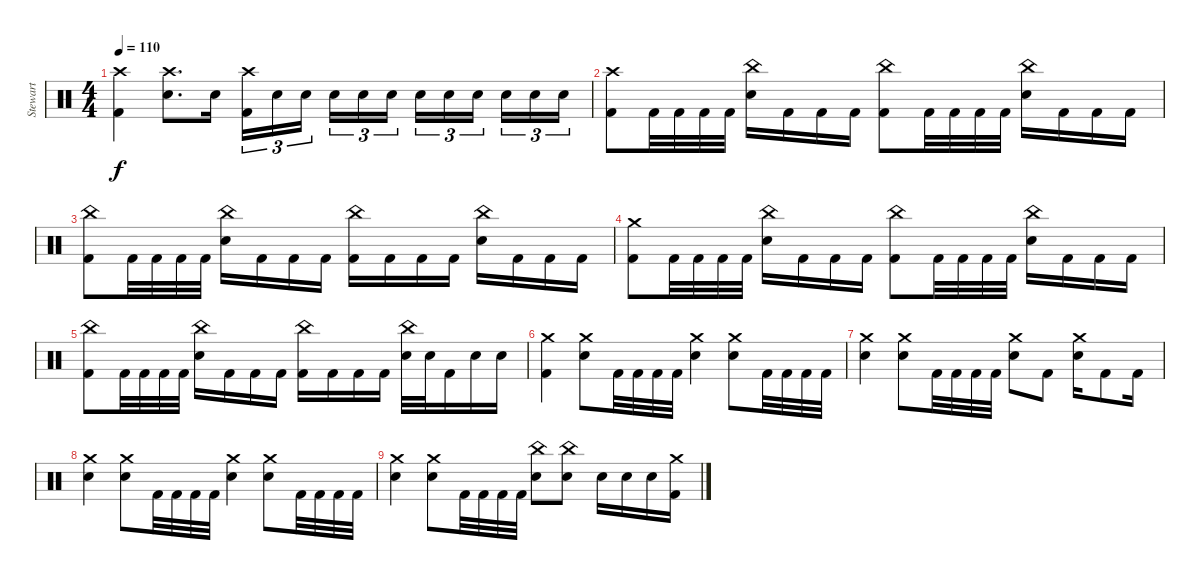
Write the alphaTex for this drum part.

\track ("Stewart" "Stewart") {instrument percussion}
\staff {score}
\articulation defaults
\ts (4 4)
\tempo 110
\clef neutral
\ks c
("Crash high (hit)" "Kick (hit) 2").4{dy f} ("Crash high (hit)" "Electric Snare (hit)").8{d} "Electric Snare (hit)".16 ("Crash high (hit)" "Kick (hit) 2").16{tu (3 2)} "Electric Snare (hit)".16{tu (3 2)} "Electric Snare (hit)".16{tu (3 2)} "Electric Snare (hit)".16{tu (3 2)} "Electric Snare (hit)".16{tu (3 2)} "Electric Snare (hit)".16{tu (3 2)} "Electric Snare (hit)".16{tu (3 2)} "Electric Snare (hit)".16{tu (3 2)} "Electric Snare (hit)".16{tu (3 2)} "Electric Snare (hit)".16{tu (3 2)} "Electric Snare (hit)".16{tu (3 2)} "Electric Snare (hit)".16{tu (3 2)} |
("Crash high (hit)" "Kick (hit) 2").8 "Kick (hit) 2".32 "Kick (hit) 2".32 "Kick (hit) 2".32 "Kick (hit) 2".32 ("China (hit)" "Electric Snare (hit)").16 "Kick (hit) 2".16 "Kick (hit) 2".16 "Kick (hit) 2".16 ("China (hit)" "Kick (hit) 2").8 "Kick (hit) 2".32 "Kick (hit) 2".32 "Kick (hit) 2".32 "Kick (hit) 2".32 ("China (hit)" "Electric Snare (hit)").16 "Kick (hit) 2".16 "Kick (hit) 2".16 "Kick (hit) 2".16 |
("China (hit)" "Kick (hit) 2").8 "Kick (hit) 2".32 "Kick (hit) 2".32 "Kick (hit) 2".32 "Kick (hit) 2".32 ("China (hit)" "Electric Snare (hit)").16 "Kick (hit) 2".16 "Kick (hit) 2".16 "Kick (hit) 2".16 ("China (hit)" "Kick (hit) 2").16 "Kick (hit) 2".16 "Kick (hit) 2".16 "Kick (hit) 2".16 ("China (hit)" "Electric Snare (hit)").16 "Kick (hit) 2".16 "Kick (hit) 2".16 "Kick (hit) 2".16 |
("Crash medium (hit)" "Kick (hit) 2").8 "Kick (hit) 2".32 "Kick (hit) 2".32 "Kick (hit) 2".32 "Kick (hit) 2".32 ("China (hit)" "Electric Snare (hit)").16 "Kick (hit) 2".16 "Kick (hit) 2".16 "Kick (hit) 2".16 ("China (hit)" "Kick (hit) 2").8 "Kick (hit) 2".32 "Kick (hit) 2".32 "Kick (hit) 2".32 "Kick (hit) 2".32 ("China (hit)" "Electric Snare (hit)").16 "Kick (hit) 2".16 "Kick (hit) 2".16 "Kick (hit) 2".16 |
("China (hit)" "Kick (hit) 2").8 "Kick (hit) 2".32 "Kick (hit) 2".32 "Kick (hit) 2".32 "Kick (hit) 2".32 ("China (hit)" "Electric Snare (hit)").16 "Kick (hit) 2".16 "Kick (hit) 2".16 "Kick (hit) 2".16 ("China (hit)" "Kick (hit) 2").16 "Kick (hit) 2".16 "Kick (hit) 2".16 "Kick (hit) 2".16 ("China (hit)" "Electric Snare (hit)").32 "Electric Snare (hit)".32 "Kick (hit) 2".16 "Electric Snare (hit)".16 "Electric Snare (hit)".16 |
("Crash medium (hit)" "Kick (hit) 2").4 ("Crash medium (hit)" "Electric Snare (hit)").8 "Kick (hit) 2".32 "Kick (hit) 2".32 "Kick (hit) 2".32 "Kick (hit) 2".32 ("Crash medium (hit)" "Electric Snare (hit)").4 ("Crash medium (hit)" "Electric Snare (hit)").8 "Kick (hit) 2".32 "Kick (hit) 2".32 "Kick (hit) 2".32 "Kick (hit) 2".32 |
("Crash medium (hit)" "Electric Snare (hit)").4 ("Crash medium (hit)" "Electric Snare (hit)").8 "Kick (hit) 2".32 "Kick (hit) 2".32 "Kick (hit) 2".32 "Kick (hit) 2".32 ("Crash medium (hit)" "Electric Snare (hit)").8 "Kick (hit) 2".8 ("Crash medium (hit)" "Electric Snare (hit)").16 "Kick (hit) 2".8 "Kick (hit) 2".16 |
("Crash medium (hit)" "Electric Snare (hit)").4 ("Crash medium (hit)" "Electric Snare (hit)").8 "Kick (hit) 2".32 "Kick (hit) 2".32 "Kick (hit) 2".32 "Kick (hit) 2".32 ("Crash medium (hit)" "Electric Snare (hit)").4 ("Crash medium (hit)" "Electric Snare (hit)").8 "Kick (hit) 2".32 "Kick (hit) 2".32 "Kick (hit) 2".32 "Kick (hit) 2".32 |
("Crash medium (hit)" "Electric Snare (hit)").4 ("Crash medium (hit)" "Electric Snare (hit)").8 "Kick (hit) 2".32 "Kick (hit) 2".32 "Kick (hit) 2".32 "Kick (hit) 2".32 ("China (hit)" "Electric Snare (hit)").8 ("China (hit)" "Electric Snare (hit)").8 "Electric Snare (hit)".16 "Electric Snare (hit)".16 "Electric Snare (hit)".16 ("Crash medium (hit)" "Kick (hit) 2").16
